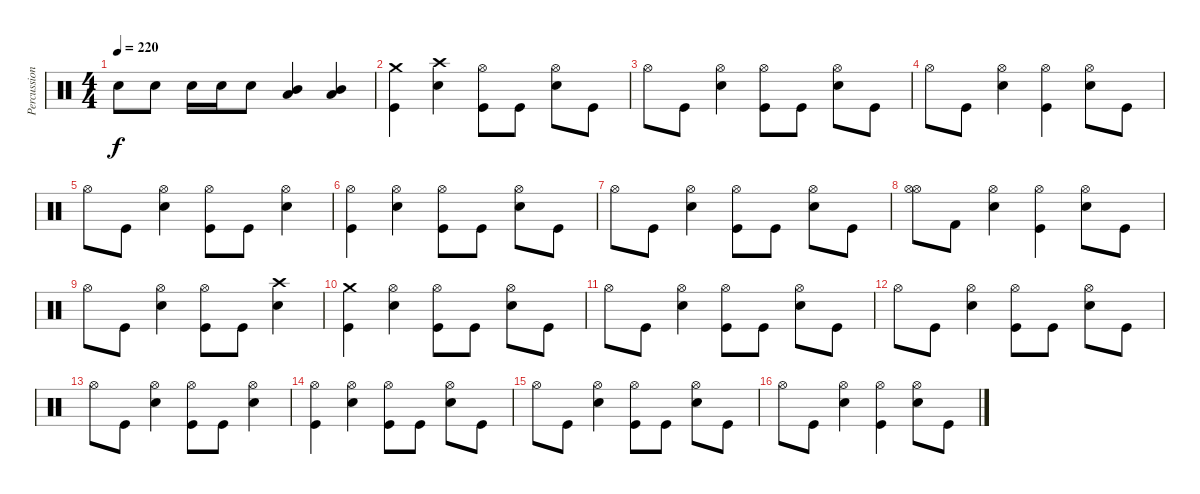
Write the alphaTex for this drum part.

\track ("Percussions" "Percussion") {instrument percussion}
\staff {score}
\articulation defaults
\ts (4 4)
\tempo 220
\clef neutral
\ks c "Electric Snare (hit)".8{dy f} "Electric Snare (hit)".8 "Electric Snare (hit)".16 "Electric Snare (hit)".16 "Electric Snare (hit)".8
("Low Tom (hit)" "Mid Tom (hit)").4 ("Low Tom (hit)" "Mid Tom (hit)").4 |
("Kick (hit)" "Crash medium (hit)").4 ("Electric Snare (hit)" "Crash high (hit)").4 ("Kick (hit)" "Hi-Hat (open)").8 "Kick (hit)".8 ("Electric Snare (hit)" "Hi-Hat (open)").8 "Kick (hit)".8 |
"Hi-Hat (open)".8 "Kick (hit)".8 ("Electric Snare (hit)" "Hi-Hat (open)").4 ("Kick (hit)" "Hi-Hat (open)").8 "Kick (hit)".8 ("Electric Snare (hit)" "Hi-Hat (open)").8 "Kick (hit)".8 |
"Hi-Hat (open)".8 "Kick (hit)".8 ("Electric Snare (hit)" "Hi-Hat (open)").4 ("Kick (hit)" "Hi-Hat (open)").4 ("Electric Snare (hit)" "Hi-Hat (open)").8 "Kick (hit)".8 |
"Hi-Hat (open)".8 "Kick (hit)".8 ("Electric Snare (hit)" "Hi-Hat (open)").4 ("Kick (hit)" "Hi-Hat (open)").8 "Kick (hit)".8 ("Electric Snare (hit)" "Hi-Hat (open)").4 |
("Kick (hit)" "Hi-Hat (open)").4 ("Electric Snare (hit)" "Hi-Hat (open)").4 ("Kick (hit)" "Hi-Hat (open)").8 "Kick (hit)".8 ("Electric Snare (hit)" "Hi-Hat (open)").8 "Kick (hit)".8 |
"Hi-Hat (open)".8 "Kick (hit)".8 ("Electric Snare (hit)" "Hi-Hat (open)").4 ("Kick (hit)" "Hi-Hat (open)").8 "Kick (hit)".8 ("Electric Snare (hit)" "Hi-Hat (open)").8 "Kick (hit)".8 |
("Hi-Hat (open)" "Hi-Hat (open)").8 "Kick (hit) 2".8 ("Electric Snare (hit)" "Hi-Hat (open)").4 ("Kick (hit)" "Hi-Hat (open)").4 ("Electric Snare (hit)" "Hi-Hat (open)").8 "Kick (hit)".8 |
"Hi-Hat (open)".8 "Kick (hit)".8 ("Electric Snare (hit)" "Hi-Hat (open)").4 ("Kick (hit)" "Hi-Hat (open)").8 "Kick (hit)".8 ("Electric Snare (hit)" "Crash high (hit)").4 |
("Kick (hit)" "Crash medium (hit)").4 ("Electric Snare (hit)" "Hi-Hat (open)").4 ("Kick (hit)" "Hi-Hat (open)").8 "Kick (hit)".8 ("Electric Snare (hit)" "Hi-Hat (open)").8 "Kick (hit)".8 |
"Hi-Hat (open)".8 "Kick (hit)".8 ("Electric Snare (hit)" "Hi-Hat (open)").4 ("Kick (hit)" "Hi-Hat (open)").8 "Kick (hit)".8 ("Electric Snare (hit)" "Hi-Hat (open)").8 "Kick (hit)".8 |
"Hi-Hat (open)".8 "Kick (hit)".8 ("Electric Snare (hit)" "Hi-Hat (open)").4 ("Kick (hit)" "Hi-Hat (open)").8 "Kick (hit)".8 ("Electric Snare (hit)" "Hi-Hat (open)").8 "Kick (hit)".8 |
"Hi-Hat (open)".8 "Kick (hit)".8 ("Electric Snare (hit)" "Hi-Hat (open)").4 ("Kick (hit)" "Hi-Hat (open)").8 "Kick (hit)".8 ("Electric Snare (hit)" "Hi-Hat (open)").4 |
("Kick (hit)" "Hi-Hat (open)").4 ("Electric Snare (hit)" "Hi-Hat (open)").4 ("Kick (hit)" "Hi-Hat (open)").8 "Kick (hit)".8 ("Electric Snare (hit)" "Hi-Hat (open)").8 "Kick (hit)".8 |
"Hi-Hat (open)".8 "Kick (hit)".8 ("Electric Snare (hit)" "Hi-Hat (open)").4 ("Kick (hit)" "Hi-Hat (open)").8 "Kick (hit)".8 ("Electric Snare (hit)" "Hi-Hat (open)").8 "Kick (hit)".8 |
"Hi-Hat (open)".8 "Kick (hit)".8 ("Electric Snare (hit)" "Hi-Hat (open)").4 ("Kick (hit)" "Hi-Hat (open)").4 ("Electric Snare (hit)" "Hi-Hat (open)").8 "Kick (hit)".8
